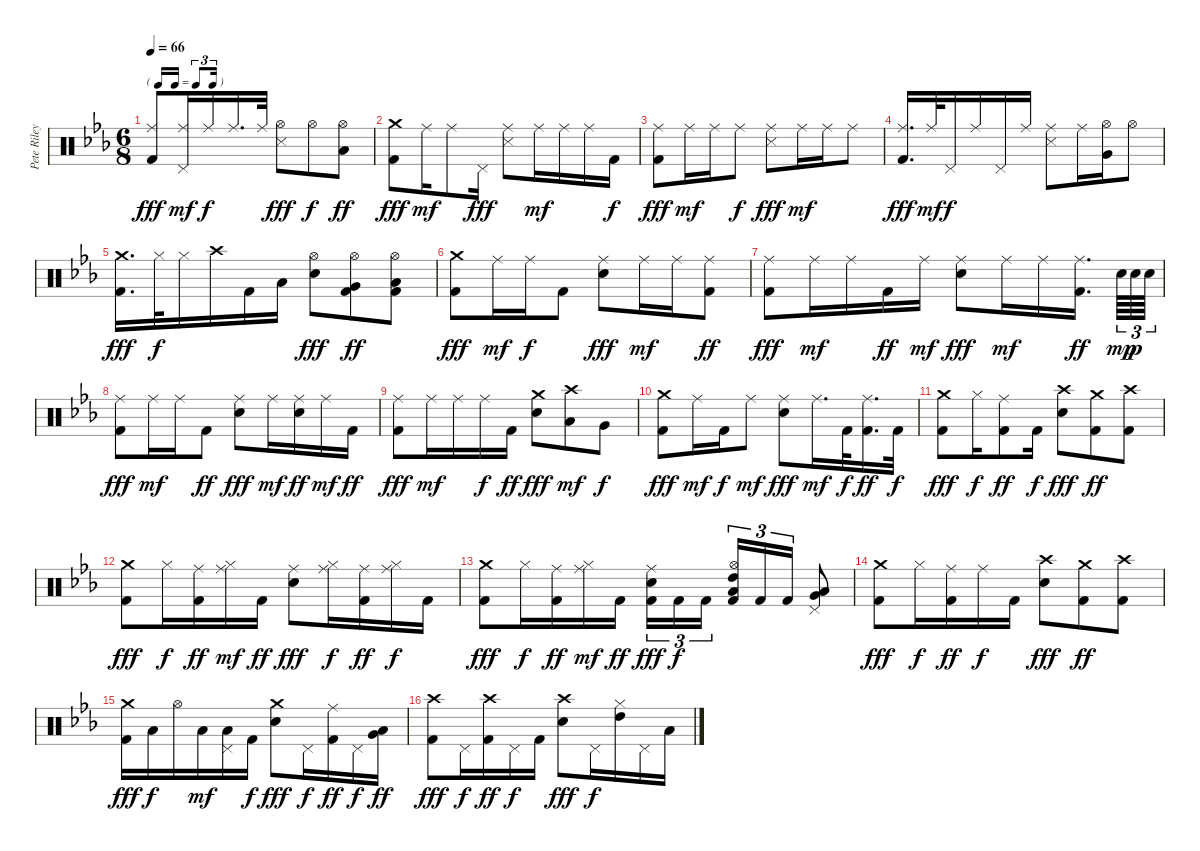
\track ("Pete Riley, Drums" "Pete Riley") {instrument percussion}
\staff {score}
\articulation defaults
\ts (6 8)
\tf triplet16th
\tempo 66
\clef neutral
\ks cminor
("Ride (middle)" "Kick (hit) 2").8{dy fff} ("Ride (middle)" "Pedal Hi-Hat (hit)").16{dy mf} "Ride (middle)".16{dy f} "Ride (middle)".16{d} "Ride (middle)".32 ("Hi-Hat (open)" "Snare (side stick) 3").8{dy fff} "Hi-Hat (open)".8{dy f} ("Hi-Hat (open)" "Low Floor Tom (hit)").8{dy ff} |
("Crash medium (hit)" "Kick (hit) 2").8{dy fff} "Ride (middle)".16{dy mf} "Ride (middle)".8 "Pedal Hi-Hat (hit)".16{dy fff} ("Ride (middle)" "Snare (side stick) 3").8 "Ride (middle)".16{dy mf} "Ride (middle)".16 "Ride (middle)".16 "Kick (hit) 2".16{dy f} |
("Ride (middle)" "Kick (hit) 2").8{dy fff} "Ride (middle)".16{dy mf} "Ride (middle)".16 "Ride (middle)".8{dy f} ("Ride (middle)" "Snare (side stick) 3").8{dy fff} "Ride (middle)".16{dy mf} "Ride (middle)".16 "Ride (middle)".8 |
("Ride (middle)" "Kick (hit) 2").16{d dy fff} "Ride (middle)".32{dy mf} "Pedal Hi-Hat (hit)".16{dy f} "Ride (middle)".16 "Pedal Hi-Hat (hit)".16 "Ride (middle)".16 ("Ride (middle)" "Snare (side stick) 3").8 "Ride (middle)".16 ("Very Low Tom (hit)" "Hi-Hat (open)").16 "Hi-Hat (open)".8 |
("Crash medium (hit)" "Kick (hit) 2").16{d dy fff} "Hi-Hat (closed)".32{dy f} "Hi-Hat (closed)".16 "Crash high (hit)".16 "Kick (hit) 2".16 "Low Tom (hit)".16 ("Hi-Hat (open)" "Snare (hit) 2").8{dy fff} ("Very Low Tom (hit)" "Hi-Hat (open)" "Kick (hit) 2").8{dy ff} ("Low Floor Tom (hit)" "Hi-Hat (open)" "Kick (hit) 2").8 |
("Crash medium (hit)" "Kick (hit) 2").8{dy fff} "Ride (middle)".16{dy mf} "Ride (middle)".16{dy f} "Kick (hit) 2".8 ("Ride (middle)" "Snare (hit) 2").8{dy fff} "Ride (middle)".16{dy mf} "Ride (middle)".16 ("Ride (middle)" "Kick (hit) 2").8{dy ff} |
("Ride (middle)" "Kick (hit) 2").8{dy fff} "Ride (middle)".16{dy mf} "Ride (middle)".16 "Kick (hit) 2".16{dy ff} "Ride (middle)".16{dy mf} ("Ride (middle)" "Snare (hit) 2").8{dy fff} "Ride (middle)".16{dy mf} "Ride (middle)".16 ("Ride (middle)" "Kick (hit) 2").16{d dy ff beam splitsecondary} "Snare (hit) 2".64{tu (3 2) dy mp} "Snare (hit) 2".64{tu (3 2) dy p} "Snare (hit) 2".64{tu (3 2)} |
("Ride (middle)" "Kick (hit) 2").8{dy fff} "Ride (middle)".16{dy mf} "Ride (middle)".16 "Kick (hit) 2".8{dy ff} ("Ride (middle)" "Snare (hit) 2").8{dy fff} "Ride (middle)".16{dy mf} ("Ride (middle)" "Snare (hit) 2").16{dy ff} "Ride (middle)".16{dy mf} "Kick (hit) 2".16{dy ff} |
("Ride (middle)" "Kick (hit) 2").8{dy fff} "Ride (middle)".16{dy mf} "Ride (middle)".16 "Ride (middle)".16{dy f} "Kick (hit) 2".16{dy ff} ("Crash medium (hit)" "Snare (hit) 2").8{dy fff} ("Crash high (hit)" "Low Tom (hit)").8{dy mf} "Very Low Tom (hit)".8{dy f} |
("Crash medium (hit)" "Kick (hit) 2").8{dy fff} "Ride (middle)".16{dy mf} "Kick (hit) 2".16{dy f} "Ride (middle)".8{dy mf} ("Ride (middle)" "Snare (hit) 2").8{dy fff} "Ride (middle)".16{d dy mf} "Kick (hit) 2".32{dy f} ("Ride (middle)" "Kick (hit) 2").16{d dy ff} "Kick (hit) 2".32{dy f} |
("Crash medium (hit)" "Kick (hit) 2").8{dy fff} "Hi-Hat (closed)".16{dy f} ("Ride (middle)" "Kick (hit) 2").8{dy ff} "Kick (hit) 2".16{dy f} ("Crash high (hit)" "Snare (hit) 2").8{dy fff} ("Crash medium (hit)" "Kick (hit) 2").8{dy ff} ("Crash high (hit)" "Kick (hit) 2").8 |
("Crash medium (hit)" "Kick (hit) 2").8{dy fff} "Hi-Hat (closed)".16{dy f} ("Ride (middle)" "Kick (hit) 2").16{dy ff} ("Ride (middle)" "Hi-Hat (closed)").16{dy mf} "Kick (hit) 2".16{dy ff} ("Ride (middle)" "Snare (hit) 2").8{dy fff} ("Ride (middle)" "Hi-Hat (closed)").16{dy f} ("Ride (middle)" "Kick (hit) 2").16{dy ff} ("Ride (middle)" "Hi-Hat (closed)").16{dy f} "Kick (hit) 2".16 |
("Crash medium (hit)" "Kick (hit) 2").8{dy fff} "Hi-Hat (closed)".16{dy f} ("Ride (middle)" "Kick (hit) 2").16{dy ff} ("Ride (middle)" "Hi-Hat (closed)").16{dy mf} "Kick (hit) 2".16{dy ff} ("Ride (middle)" "Snare (hit) 2" "Kick (hit) 2").16{tu (3 2) dy fff} "Kick (hit) 2".16{tu (3 2) dy f} "Kick (hit) 2".16{tu (3 2) beam splitsecondary} ("Hi-Hat (open)" "High Tom (hit)" "Low Tom (hit)" "Kick (hit) 2").16{tu (3 2)} "Kick (hit) 2".16{tu (3 2)} "Kick (hit) 2".16{tu (3 2)} ("Pedal Hi-Hat (hit)" "Low Tom (hit)" "Very Low Tom (hit)").8 |
("Crash medium (hit)" "Kick (hit) 2").8{dy fff} "Hi-Hat (closed)".16{dy f} ("Ride (middle)" "Kick (hit) 2").16{dy ff} "Ride (middle)".16{dy f} "Kick (hit) 2".16 ("Crash high (hit)" "Snare (hit) 2").8{dy fff} ("Crash medium (hit)" "Kick (hit) 2").8{dy ff} ("Crash high (hit)" "Kick (hit) 2").8 |
("Crash medium (hit)" "Kick (hit) 2").16{dy fff} "Low Tom (hit)".16{dy f} "Hi-Hat (open)".16 "Low Floor Tom (hit)".16{dy mf} ("Low Floor Tom (hit)" "Pedal Hi-Hat (hit)").16 "Kick (hit) 2".16{dy f} ("Crash medium (hit)" "Snare (hit) 2").8{dy fff} "Pedal Hi-Hat (hit)".16{dy f} ("Ride (middle)" "Kick (hit) 2").16{dy ff} "Pedal Hi-Hat (hit)".16{dy f} ("Very Low Tom (hit)" "Low Floor Tom (hit)").16{dy ff} |
("Crash high (hit)" "Kick (hit) 2").8{dy fff} "Pedal Hi-Hat (hit)".16{dy f} ("Crash high (hit)" "Kick (hit) 2").16{dy ff} "Pedal Hi-Hat (hit)".16{dy f} "Kick (hit) 2".16 ("Crash high (hit)" "Snare (hit) 2").8{dy fff} "Pedal Hi-Hat (hit)".16{dy f} ("High Tom (hit)" "Hi-Hat (closed)").16 "Pedal Hi-Hat (hit)".16 "Low Tom (hit)".16
